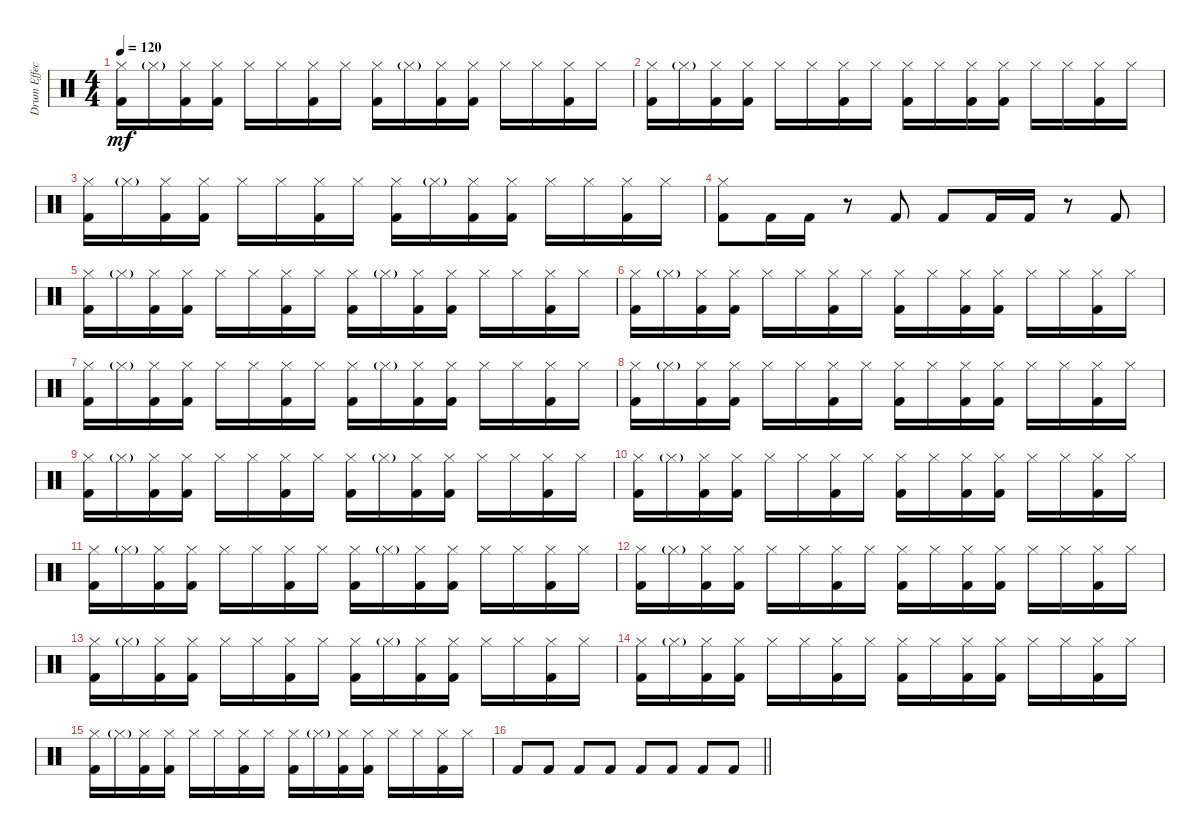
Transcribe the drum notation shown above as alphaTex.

\track ("Drum Effects" "Drum Effec") {instrument percussion}
\staff {score}
\articulation defaults
\ts (4 4)
\tempo 120
\clef neutral
\ks c
("Hi-Hat (closed)" "Kick (hit) 2").16{dy mf} "Hi-Hat (closed)"{g}.16 ("Hi-Hat (closed)" "Kick (hit) 2").16 ("Hi-Hat (closed)" "Kick (hit) 2").16 "Hi-Hat (closed)".16 "Hi-Hat (closed)".16 ("Hi-Hat (closed)" "Kick (hit) 2").16 "Hi-Hat (closed)".16 ("Hi-Hat (closed)" "Kick (hit) 2").16 "Hi-Hat (closed)"{g}.16 ("Hi-Hat (closed)" "Kick (hit) 2").16 ("Hi-Hat (closed)" "Kick (hit) 2").16 "Hi-Hat (closed)".16 "Hi-Hat (closed)".16 ("Hi-Hat (closed)" "Kick (hit) 2").16 "Hi-Hat (closed)".16 |
("Hi-Hat (closed)" "Kick (hit) 2").16 "Hi-Hat (closed)"{g}.16 ("Hi-Hat (closed)" "Kick (hit) 2").16 ("Hi-Hat (closed)" "Kick (hit) 2").16 "Hi-Hat (closed)".16 "Hi-Hat (closed)".16 ("Hi-Hat (closed)" "Kick (hit) 2").16 "Hi-Hat (closed)".16 ("Hi-Hat (closed)" "Kick (hit) 2").16 "Hi-Hat (closed)".16 ("Hi-Hat (closed)" "Kick (hit) 2").16 ("Hi-Hat (closed)" "Kick (hit) 2").16 "Hi-Hat (closed)".16 "Hi-Hat (closed)".16 ("Hi-Hat (closed)" "Kick (hit) 2").16 "Hi-Hat (closed)".16 |
("Hi-Hat (closed)" "Kick (hit) 2").16 "Hi-Hat (closed)"{g}.16 ("Hi-Hat (closed)" "Kick (hit) 2").16 ("Hi-Hat (closed)" "Kick (hit) 2").16 "Hi-Hat (closed)".16 "Hi-Hat (closed)".16 ("Hi-Hat (closed)" "Kick (hit) 2").16 "Hi-Hat (closed)".16 ("Hi-Hat (closed)" "Kick (hit) 2").16 "Hi-Hat (closed)"{g}.16 ("Hi-Hat (closed)" "Kick (hit) 2").16 ("Hi-Hat (closed)" "Kick (hit) 2").16 "Hi-Hat (closed)".16 "Hi-Hat (closed)".16 ("Hi-Hat (closed)" "Kick (hit) 2").16 "Hi-Hat (closed)".16 |
("Hi-Hat (closed)" "Kick (hit) 2").8 "Kick (hit) 2".16 "Kick (hit) 2".16 r.8 "Kick (hit) 2".8 "Kick (hit) 2".8 "Kick (hit) 2".16 "Kick (hit) 2".16 r.8 "Kick (hit) 2".8 |
("Hi-Hat (closed)" "Kick (hit) 2").16 "Hi-Hat (closed)"{g}.16 ("Hi-Hat (closed)" "Kick (hit) 2").16 ("Hi-Hat (closed)" "Kick (hit) 2").16 "Hi-Hat (closed)".16 "Hi-Hat (closed)".16 ("Hi-Hat (closed)" "Kick (hit) 2").16 "Hi-Hat (closed)".16 ("Hi-Hat (closed)" "Kick (hit) 2").16 "Hi-Hat (closed)"{g}.16 ("Hi-Hat (closed)" "Kick (hit) 2").16 ("Hi-Hat (closed)" "Kick (hit) 2").16 "Hi-Hat (closed)".16 "Hi-Hat (closed)".16 ("Hi-Hat (closed)" "Kick (hit) 2").16 "Hi-Hat (closed)".16 |
("Hi-Hat (closed)" "Kick (hit) 2").16 "Hi-Hat (closed)"{g}.16 ("Hi-Hat (closed)" "Kick (hit) 2").16 ("Hi-Hat (closed)" "Kick (hit) 2").16 "Hi-Hat (closed)".16 "Hi-Hat (closed)".16 ("Hi-Hat (closed)" "Kick (hit) 2").16 "Hi-Hat (closed)".16 ("Hi-Hat (closed)" "Kick (hit) 2").16 "Hi-Hat (closed)".16 ("Hi-Hat (closed)" "Kick (hit) 2").16 ("Hi-Hat (closed)" "Kick (hit) 2").16 "Hi-Hat (closed)".16 "Hi-Hat (closed)".16 ("Hi-Hat (closed)" "Kick (hit) 2").16 "Hi-Hat (closed)".16 |
("Hi-Hat (closed)" "Kick (hit) 2").16 "Hi-Hat (closed)"{g}.16 ("Hi-Hat (closed)" "Kick (hit) 2").16 ("Hi-Hat (closed)" "Kick (hit) 2").16 "Hi-Hat (closed)".16 "Hi-Hat (closed)".16 ("Hi-Hat (closed)" "Kick (hit) 2").16 "Hi-Hat (closed)".16 ("Hi-Hat (closed)" "Kick (hit) 2").16 "Hi-Hat (closed)"{g}.16 ("Hi-Hat (closed)" "Kick (hit) 2").16 ("Hi-Hat (closed)" "Kick (hit) 2").16 "Hi-Hat (closed)".16 "Hi-Hat (closed)".16 ("Hi-Hat (closed)" "Kick (hit) 2").16 "Hi-Hat (closed)".16 |
("Hi-Hat (closed)" "Kick (hit) 2").16 "Hi-Hat (closed)"{g}.16 ("Hi-Hat (closed)" "Kick (hit) 2").16 ("Hi-Hat (closed)" "Kick (hit) 2").16 "Hi-Hat (closed)".16 "Hi-Hat (closed)".16 ("Hi-Hat (closed)" "Kick (hit) 2").16 "Hi-Hat (closed)".16 ("Hi-Hat (closed)" "Kick (hit) 2").16 "Hi-Hat (closed)".16 ("Hi-Hat (closed)" "Kick (hit) 2").16 ("Hi-Hat (closed)" "Kick (hit) 2").16 "Hi-Hat (closed)".16 "Hi-Hat (closed)".16 ("Hi-Hat (closed)" "Kick (hit) 2").16 "Hi-Hat (closed)".16 |
("Hi-Hat (closed)" "Kick (hit) 2").16 "Hi-Hat (closed)"{g}.16 ("Hi-Hat (closed)" "Kick (hit) 2").16 ("Hi-Hat (closed)" "Kick (hit) 2").16 "Hi-Hat (closed)".16 "Hi-Hat (closed)".16 ("Hi-Hat (closed)" "Kick (hit) 2").16 "Hi-Hat (closed)".16 ("Hi-Hat (closed)" "Kick (hit) 2").16 "Hi-Hat (closed)"{g}.16 ("Hi-Hat (closed)" "Kick (hit) 2").16 ("Hi-Hat (closed)" "Kick (hit) 2").16 "Hi-Hat (closed)".16 "Hi-Hat (closed)".16 ("Hi-Hat (closed)" "Kick (hit) 2").16 "Hi-Hat (closed)".16 |
("Hi-Hat (closed)" "Kick (hit) 2").16 "Hi-Hat (closed)"{g}.16 ("Hi-Hat (closed)" "Kick (hit) 2").16 ("Hi-Hat (closed)" "Kick (hit) 2").16 "Hi-Hat (closed)".16 "Hi-Hat (closed)".16 ("Hi-Hat (closed)" "Kick (hit) 2").16 "Hi-Hat (closed)".16 ("Hi-Hat (closed)" "Kick (hit) 2").16 "Hi-Hat (closed)".16 ("Hi-Hat (closed)" "Kick (hit) 2").16 ("Hi-Hat (closed)" "Kick (hit) 2").16 "Hi-Hat (closed)".16 "Hi-Hat (closed)".16 ("Hi-Hat (closed)" "Kick (hit) 2").16 "Hi-Hat (closed)".16 |
("Hi-Hat (closed)" "Kick (hit) 2").16 "Hi-Hat (closed)"{g}.16 ("Hi-Hat (closed)" "Kick (hit) 2").16 ("Hi-Hat (closed)" "Kick (hit) 2").16 "Hi-Hat (closed)".16 "Hi-Hat (closed)".16 ("Hi-Hat (closed)" "Kick (hit) 2").16 "Hi-Hat (closed)".16 ("Hi-Hat (closed)" "Kick (hit) 2").16 "Hi-Hat (closed)"{g}.16 ("Hi-Hat (closed)" "Kick (hit) 2").16 ("Hi-Hat (closed)" "Kick (hit) 2").16 "Hi-Hat (closed)".16 "Hi-Hat (closed)".16 ("Hi-Hat (closed)" "Kick (hit) 2").16 "Hi-Hat (closed)".16 |
("Hi-Hat (closed)" "Kick (hit) 2").16 "Hi-Hat (closed)"{g}.16 ("Hi-Hat (closed)" "Kick (hit) 2").16 ("Hi-Hat (closed)" "Kick (hit) 2").16 "Hi-Hat (closed)".16 "Hi-Hat (closed)".16 ("Hi-Hat (closed)" "Kick (hit) 2").16 "Hi-Hat (closed)".16 ("Hi-Hat (closed)" "Kick (hit) 2").16 "Hi-Hat (closed)".16 ("Hi-Hat (closed)" "Kick (hit) 2").16 ("Hi-Hat (closed)" "Kick (hit) 2").16 "Hi-Hat (closed)".16 "Hi-Hat (closed)".16 ("Hi-Hat (closed)" "Kick (hit) 2").16 "Hi-Hat (closed)".16 |
("Hi-Hat (closed)" "Kick (hit) 2").16 "Hi-Hat (closed)"{g}.16 ("Hi-Hat (closed)" "Kick (hit) 2").16 ("Hi-Hat (closed)" "Kick (hit) 2").16 "Hi-Hat (closed)".16 "Hi-Hat (closed)".16 ("Hi-Hat (closed)" "Kick (hit) 2").16 "Hi-Hat (closed)".16 ("Hi-Hat (closed)" "Kick (hit) 2").16 "Hi-Hat (closed)"{g}.16 ("Hi-Hat (closed)" "Kick (hit) 2").16 ("Hi-Hat (closed)" "Kick (hit) 2").16 "Hi-Hat (closed)".16 "Hi-Hat (closed)".16 ("Hi-Hat (closed)" "Kick (hit) 2").16 "Hi-Hat (closed)".16 |
("Hi-Hat (closed)" "Kick (hit) 2").16 "Hi-Hat (closed)"{g}.16 ("Hi-Hat (closed)" "Kick (hit) 2").16 ("Hi-Hat (closed)" "Kick (hit) 2").16 "Hi-Hat (closed)".16 "Hi-Hat (closed)".16 ("Hi-Hat (closed)" "Kick (hit) 2").16 "Hi-Hat (closed)".16 ("Hi-Hat (closed)" "Kick (hit) 2").16 "Hi-Hat (closed)".16 ("Hi-Hat (closed)" "Kick (hit) 2").16 ("Hi-Hat (closed)" "Kick (hit) 2").16 "Hi-Hat (closed)".16 "Hi-Hat (closed)".16 ("Hi-Hat (closed)" "Kick (hit) 2").16 "Hi-Hat (closed)".16 |
("Hi-Hat (closed)" "Kick (hit) 2").16 "Hi-Hat (closed)"{g}.16 ("Hi-Hat (closed)" "Kick (hit) 2").16 ("Hi-Hat (closed)" "Kick (hit) 2").16 "Hi-Hat (closed)".16 "Hi-Hat (closed)".16 ("Hi-Hat (closed)" "Kick (hit) 2").16 "Hi-Hat (closed)".16 ("Hi-Hat (closed)" "Kick (hit) 2").16 "Hi-Hat (closed)"{g}.16 ("Hi-Hat (closed)" "Kick (hit) 2").16 ("Hi-Hat (closed)" "Kick (hit) 2").16 "Hi-Hat (closed)".16 "Hi-Hat (closed)".16 ("Hi-Hat (closed)" "Kick (hit) 2").16 "Hi-Hat (closed)".16 |
\barLineRight lightlight "Kick (hit) 2".8 "Kick (hit) 2".8 "Kick (hit) 2".8 "Kick (hit) 2".8 "Kick (hit) 2".8 "Kick (hit) 2".8 "Kick (hit) 2".8 "Kick (hit) 2".8
